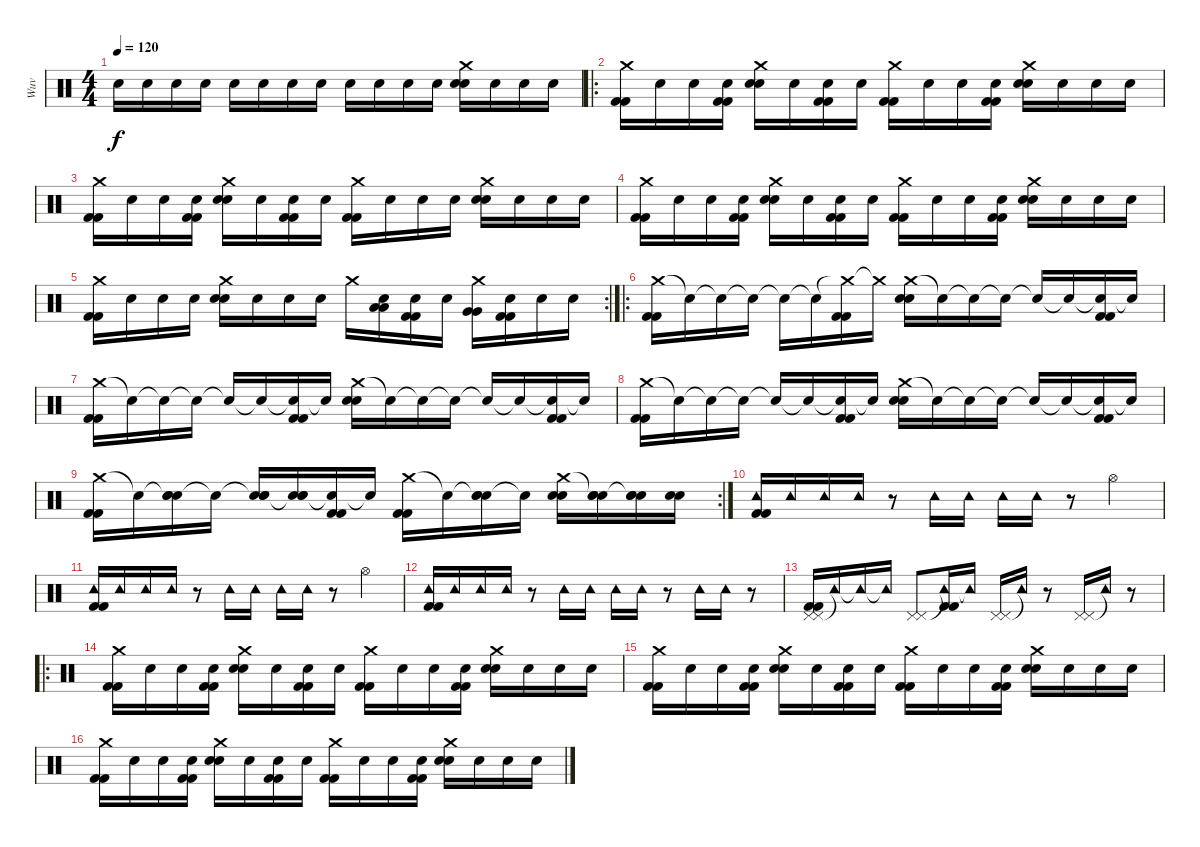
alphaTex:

\track ("Wuv" "Wuv") {instrument percussion}
\staff {score}
\articulation defaults
\ts (4 4)
\tempo 120
\clef neutral
\ks c "Snare (hit)".16{dy f} "Snare (hit)".16 "Snare (hit)".16 "Snare (hit)".16 "Snare (hit)".16 "Snare (hit)".16 "Snare (hit)".16 "Snare (hit)".16 "Snare (hit)".16 "Snare (hit)".16 "Snare (hit)".16 "Snare (hit)".16
("Crash medium (hit)" "Electric Snare (hit)" "Electric Snare (hit)").16 "Snare (hit)".16 "Snare (hit)".16 "Snare (hit)".16 |
\ro
("Crash medium (hit)" "Kick (hit) 2" "Kick (hit) 2").16 "Snare (hit)".16 "Snare (hit)".16 ("Snare (hit)" "Kick (hit) 2" "Kick (hit) 2").16 ("Crash medium (hit)" "Electric Snare (hit)" "Electric Snare (hit)").16 "Snare (hit)".16 ("Snare (hit)" "Kick (hit) 2" "Kick (hit) 2").16 "Snare (hit)".16 ("Crash medium (hit)" "Kick (hit) 2" "Kick (hit) 2").16 "Snare (hit)".16 "Snare (hit)".16 ("Snare (hit)" "Kick (hit) 2" "Kick (hit) 2").16 ("Crash medium (hit)" "Electric Snare (hit)" "Electric Snare (hit)").16 "Snare (hit)".16 "Snare (hit)".16 "Snare (hit)".16 |
("Crash medium (hit)" "Kick (hit) 2" "Kick (hit) 2").16 "Snare (hit)".16 "Snare (hit)".16 ("Snare (hit)" "Kick (hit) 2" "Kick (hit) 2").16 ("Crash medium (hit)" "Electric Snare (hit)" "Electric Snare (hit)").16 "Snare (hit)".16 ("Snare (hit)" "Kick (hit) 2" "Kick (hit) 2").16 "Snare (hit)".16 ("Crash medium (hit)" "Kick (hit) 2" "Kick (hit) 2").16 "Snare (hit)".16 "Snare (hit)".16 "Snare (hit)".16 ("Crash medium (hit)" "Electric Snare (hit)" "Electric Snare (hit)").16 "Snare (hit)".16 "Snare (hit)".16 "Snare (hit)".16 |
("Crash medium (hit)" "Kick (hit) 2" "Kick (hit) 2").16 "Snare (hit)".16 "Snare (hit)".16 ("Snare (hit)" "Kick (hit) 2" "Kick (hit) 2").16 ("Crash medium (hit)" "Electric Snare (hit)" "Electric Snare (hit)").16 "Snare (hit)".16 ("Snare (hit)" "Kick (hit) 2" "Kick (hit) 2").16 "Snare (hit)".16 ("Crash medium (hit)" "Kick (hit) 2" "Kick (hit) 2").16 "Snare (hit)".16 "Snare (hit)".16 ("Snare (hit)" "Kick (hit) 2" "Kick (hit) 2").16 ("Crash medium (hit)" "Electric Snare (hit)" "Electric Snare (hit)").16 "Snare (hit)".16 "Snare (hit)".16 "Snare (hit)".16 |
\rc 2
("Crash medium (hit)" "Kick (hit) 2" "Kick (hit) 2").16 "Snare (hit)".16 "Snare (hit)".16 "Snare (hit)".16 ("Crash medium (hit)" "Electric Snare (hit)" "Electric Snare (hit)").16 "Snare (hit)".16 "Snare (hit)".16 "Snare (hit)".16 "Crash medium (hit)".16 ("Snare (hit)" "Low Tom (hit)" "Low Tom (hit)").16 ("Snare (hit)" "Kick (hit) 2" "Kick (hit) 2").16 "Snare (hit)".16 ("Crash medium (hit)" "Very Low Tom (hit)" "Very Low Tom (hit)").16 ("Snare (hit)" "Kick (hit) 2" "Kick (hit) 2").16 "Snare (hit)".16 "Snare (hit)".16 |
\ro
("Crash medium (hit)" "Kick (hit) 2" "Kick (hit) 2").16 "Snare (hit)"{t}.16 "Snare (hit)"{t}.16 "Snare (hit)"{t}.16 "Snare (hit)"{t}.16 "Snare (hit)"{t}.16 ("Crash medium (hit)"{t} "Kick (hit) 2" "Kick (hit) 2").16 "Crash medium (hit)"{t}.16 ("Crash medium (hit)" "Electric Snare (hit)" "Electric Snare (hit)").16 "Snare (hit)"{t}.16 "Snare (hit)"{t}.16 "Snare (hit)"{t}.16 "Snare (hit)"{t}.16 "Snare (hit)"{t}.16 ("Snare (hit)"{t} "Kick (hit) 2" "Kick (hit) 2").16 "Snare (hit)"{t}.16 |
("Crash medium (hit)" "Kick (hit) 2" "Kick (hit) 2").16 "Snare (hit)"{t}.16 "Snare (hit)"{t}.16 "Snare (hit)"{t}.16 "Snare (hit)"{t}.16 "Snare (hit)"{t}.16 ("Snare (hit)"{t} "Kick (hit) 2" "Kick (hit) 2").16 "Snare (hit)"{t}.16 ("Crash medium (hit)" "Electric Snare (hit)" "Electric Snare (hit)").16 "Snare (hit)"{t}.16 "Snare (hit)"{t}.16 "Snare (hit)"{t}.16 "Snare (hit)"{t}.16 "Snare (hit)"{t}.16 ("Snare (hit)"{t} "Kick (hit) 2" "Kick (hit) 2").16 "Snare (hit)"{t}.16 |
("Crash medium (hit)" "Kick (hit) 2" "Kick (hit) 2").16 "Snare (hit)"{t}.16 "Snare (hit)"{t}.16 "Snare (hit)"{t}.16 "Snare (hit)"{t}.16 "Snare (hit)"{t}.16 ("Snare (hit)"{t} "Kick (hit) 2" "Kick (hit) 2").16 "Snare (hit)"{t}.16 ("Crash medium (hit)" "Electric Snare (hit)" "Electric Snare (hit)").16 "Snare (hit)"{t}.16 "Snare (hit)"{t}.16 "Snare (hit)"{t}.16 "Snare (hit)"{t}.16 "Snare (hit)"{t}.16 ("Snare (hit)"{t} "Kick (hit) 2" "Kick (hit) 2").16 "Snare (hit)"{t}.16 |
\rc 2
("Crash medium (hit)" "Kick (hit) 2" "Kick (hit) 2").16 "Snare (hit)"{t}.16 ("Snare (hit)"{t} "Electric Snare (hit)" "Electric Snare (hit)").16 "Snare (hit)"{t}.16 ("Snare (hit)"{t} "Electric Snare (hit)" "Electric Snare (hit)").16 ("Snare (hit)"{t} "Electric Snare (hit)" "Electric Snare (hit)").16 ("Snare (hit)"{t} "Kick (hit) 2" "Kick (hit) 2").16 "Snare (hit)"{t}.16 ("Crash medium (hit)" "Kick (hit) 2" "Kick (hit) 2").16 "Snare (hit)"{t}.16 ("Snare (hit)"{t} "Electric Snare (hit)" "Electric Snare (hit)").16 "Snare (hit)"{t}.16 ("Crash medium (hit)" "Electric Snare (hit)" "Electric Snare (hit)").16 ("Snare (hit)"{t} "Electric Snare (hit)" "Electric Snare (hit)").16 ("Snare (hit)"{t} "Electric Snare (hit)" "Electric Snare (hit)").16 ("Electric Snare (hit)" "Electric Snare (hit)").16 |
("Tambourine (hit)" "Kick (hit) 2" "Kick (hit) 2").16 "Tambourine (hit)".16 "Tambourine (hit)".16 "Tambourine (hit)".16 r.8 "Tambourine (hit)".16 "Tambourine (hit)".16 "Tambourine (hit)".16 "Tambourine (hit)".16 r.8 "Hi-Hat (open)".4 |
("Tambourine (hit)" "Kick (hit) 2" "Kick (hit) 2").16 "Tambourine (hit)".16 "Tambourine (hit)".16 "Tambourine (hit)".16 r.8 "Tambourine (hit)".16 "Tambourine (hit)".16 "Tambourine (hit)".16 "Tambourine (hit)".16 r.8 "Hi-Hat (open)".4 |
("Tambourine (hit)" "Kick (hit) 2" "Kick (hit) 2").16 "Tambourine (hit)".16 "Tambourine (hit)".16 "Tambourine (hit)".16 r.8 "Tambourine (hit)".16 "Tambourine (hit)".16 "Tambourine (hit)".16 "Tambourine (hit)".16 r.8 "Tambourine (hit)".16 "Tambourine (hit)".16 r.8 |
("Pedal Hi-Hat (hit)" "Pedal Hi-Hat (hit)" "Kick (hit) 2" "Kick (hit) 2").16 "Tambourine (hit)"{t}.16 "Tambourine (hit)"{t}.16 "Tambourine (hit)"{t}.16 ("Pedal Hi-Hat (hit)" "Pedal Hi-Hat (hit)").8 ("Tambourine (hit)"{t} "Kick (hit) 2" "Kick (hit) 2").16 "Tambourine (hit)"{t}.16 ("Pedal Hi-Hat (hit)" "Pedal Hi-Hat (hit)").16 "Tambourine (hit)"{t}.16 r.8 ("Pedal Hi-Hat (hit)" "Pedal Hi-Hat (hit)").16 "Tambourine (hit)"{t}.16 r.8 |
\ro
("Crash medium (hit)" "Kick (hit) 2" "Kick (hit) 2").16 "Snare (hit)".16 "Snare (hit)".16 ("Snare (hit)" "Kick (hit) 2" "Kick (hit) 2").16 ("Crash medium (hit)" "Electric Snare (hit)" "Electric Snare (hit)").16 "Snare (hit)".16 ("Snare (hit)" "Kick (hit) 2" "Kick (hit) 2").16 "Snare (hit)".16 ("Crash medium (hit)" "Kick (hit) 2" "Kick (hit) 2").16 "Snare (hit)".16 "Snare (hit)".16 ("Snare (hit)" "Kick (hit) 2" "Kick (hit) 2").16 ("Crash medium (hit)" "Electric Snare (hit)" "Electric Snare (hit)").16 "Snare (hit)".16 "Snare (hit)".16 "Snare (hit)".16 |
("Crash medium (hit)" "Kick (hit) 2" "Kick (hit) 2").16 "Snare (hit)".16 "Snare (hit)".16 ("Snare (hit)" "Kick (hit) 2" "Kick (hit) 2").16 ("Crash medium (hit)" "Electric Snare (hit)" "Electric Snare (hit)").16 "Snare (hit)".16 ("Snare (hit)" "Kick (hit) 2" "Kick (hit) 2").16 "Snare (hit)".16 ("Crash medium (hit)" "Kick (hit) 2" "Kick (hit) 2").16 "Snare (hit)".16 "Snare (hit)".16 ("Snare (hit)" "Kick (hit) 2" "Kick (hit) 2").16 ("Crash medium (hit)" "Electric Snare (hit)" "Electric Snare (hit)").16 "Snare (hit)".16 "Snare (hit)".16 "Snare (hit)".16 |
("Crash medium (hit)" "Kick (hit) 2" "Kick (hit) 2").16 "Snare (hit)".16 "Snare (hit)".16 ("Snare (hit)" "Kick (hit) 2" "Kick (hit) 2").16 ("Crash medium (hit)" "Electric Snare (hit)" "Electric Snare (hit)").16 "Snare (hit)".16 ("Snare (hit)" "Kick (hit) 2" "Kick (hit) 2").16 "Snare (hit)".16 ("Crash medium (hit)" "Kick (hit) 2" "Kick (hit) 2").16 "Snare (hit)".16 "Snare (hit)".16 ("Snare (hit)" "Kick (hit) 2" "Kick (hit) 2").16 ("Crash medium (hit)" "Electric Snare (hit)" "Electric Snare (hit)").16 "Snare (hit)".16 "Snare (hit)".16 "Snare (hit)".16
